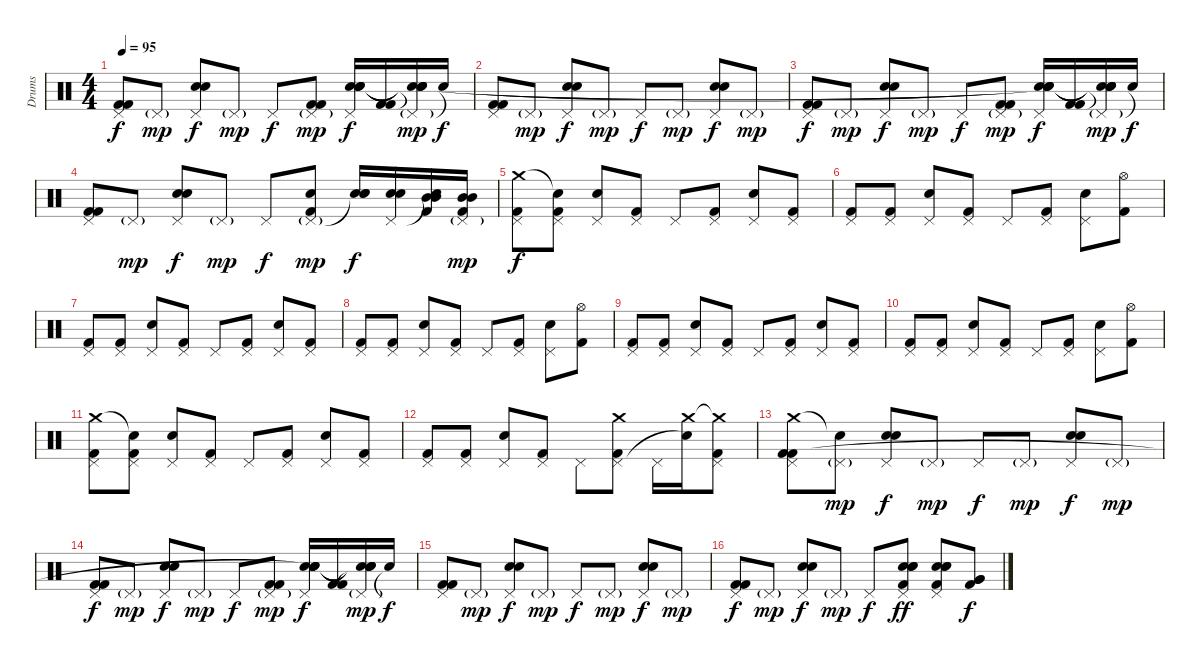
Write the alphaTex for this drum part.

\track ("Drums" "Drums") {instrument percussion}
\staff {score}
\articulation defaults
\ts (4 4)
\tempo 95
\clef neutral
\ks c
("Pedal Hi-Hat (hit)" "Kick (hit) 2" "Kick (hit) 2").8{dy f} "Pedal Hi-Hat (hit)"{g}.8{dy mp} ("Pedal Hi-Hat (hit)" "Electric Snare (hit)" "Electric Snare (hit)").8{dy f} "Pedal Hi-Hat (hit)"{g}.8{dy mp} "Pedal Hi-Hat (hit)".8{dy f} ("Pedal Hi-Hat (hit)"{g} "Kick (hit) 2" "Kick (hit) 2").8{dy mp} ("Pedal Hi-Hat (hit)" "Electric Snare (hit)" "Electric Snare (hit)" "Snare (hit)"{t} "Snare (hit)"{t}).16{dy f} ("Kick (hit) 2" "Kick (hit) 2").16 ("Pedal Hi-Hat (hit)"{g} "Snare (hit)"{t} "Snare (hit)"{t} "Snare (hit)"{t} "Snare (hit)"{t}).16{dy mp} "Snare (hit)"{t}.16{dy f} |
("Pedal Hi-Hat (hit)" "Kick (hit) 2" "Kick (hit) 2").8 "Pedal Hi-Hat (hit)"{g}.8{dy mp} ("Pedal Hi-Hat (hit)" "Electric Snare (hit)" "Electric Snare (hit)").8{dy f} "Pedal Hi-Hat (hit)"{g}.8{dy mp} "Pedal Hi-Hat (hit)".8{dy f} "Pedal Hi-Hat (hit)"{g}.8{dy mp} ("Pedal Hi-Hat (hit)" "Electric Snare (hit)" "Electric Snare (hit)").8{dy f} "Pedal Hi-Hat (hit)"{g}.8{dy mp} |
("Pedal Hi-Hat (hit)" "Kick (hit) 2" "Kick (hit) 2").8{dy f} "Pedal Hi-Hat (hit)"{g}.8{dy mp} ("Pedal Hi-Hat (hit)" "Electric Snare (hit)" "Electric Snare (hit)").8{dy f} "Pedal Hi-Hat (hit)"{g}.8{dy mp} "Pedal Hi-Hat (hit)".8{dy f} ("Pedal Hi-Hat (hit)"{g} "Kick (hit) 2" "Kick (hit) 2").8{dy mp} ("Pedal Hi-Hat (hit)" "Electric Snare (hit)" "Electric Snare (hit)" "Snare (hit)"{t} "Snare (hit)"{t}).16{dy f} ("Kick (hit) 2" "Kick (hit) 2").16 ("Pedal Hi-Hat (hit)"{g} "Snare (hit)"{t} "Snare (hit)"{t} "Snare (hit)"{t} "Snare (hit)"{t}).16{dy mp} "Snare (hit)"{t}.16{dy f} |
("Pedal Hi-Hat (hit)" "Kick (hit) 2" "Kick (hit) 2").8 "Pedal Hi-Hat (hit)"{g}.8{dy mp} ("Pedal Hi-Hat (hit)" "Electric Snare (hit)" "Electric Snare (hit)").8{dy f} "Pedal Hi-Hat (hit)"{g}.8{dy mp} "Pedal Hi-Hat (hit)".8{dy f} ("Pedal Hi-Hat (hit)"{g} "Electric Snare (hit)" "Kick (hit) 2").8{dy mp} ("Snare (hit)"{t} "Electric Snare (hit)" "Electric Snare (hit)").16{dy f} ("Pedal Hi-Hat (hit)" "Electric Snare (hit)" "Electric Snare (hit)").16 ("Snare (hit)"{t} "Mid Tom (hit)" "Mid Tom (hit)" "Kick (hit) 2").16 ("Pedal Hi-Hat (hit)"{g} "Mid Tom (hit)" "Mid Tom (hit)" "Kick (hit) 2").16{dy mp} |
("Crash medium (hit)" "Pedal Hi-Hat (hit)" "Kick (hit) 2").8{dy f} ("Snare (hit)"{t} "Pedal Hi-Hat (hit)" "Kick (hit) 2").8 ("Pedal Hi-Hat (hit)" "Snare (hit) 2").8 ("Pedal Hi-Hat (hit)" "Kick (hit) 2").8 "Pedal Hi-Hat (hit)".8 ("Pedal Hi-Hat (hit)" "Kick (hit) 2").8 ("Pedal Hi-Hat (hit)" "Snare (hit) 2").8 ("Pedal Hi-Hat (hit)" "Kick (hit) 2").8 |
("Pedal Hi-Hat (hit)" "Kick (hit) 2").8 ("Pedal Hi-Hat (hit)" "Kick (hit) 2").8 ("Pedal Hi-Hat (hit)" "Snare (hit) 2").8 ("Pedal Hi-Hat (hit)" "Kick (hit) 2").8 "Pedal Hi-Hat (hit)".8 ("Pedal Hi-Hat (hit)" "Kick (hit) 2").8 ("Pedal Hi-Hat (hit)" "Snare (hit) 2").8 ("Hi-Hat (open)" "Kick (hit) 2").8 |
("Pedal Hi-Hat (hit)" "Kick (hit) 2").8 ("Pedal Hi-Hat (hit)" "Kick (hit) 2").8 ("Pedal Hi-Hat (hit)" "Snare (hit) 2").8 ("Pedal Hi-Hat (hit)" "Kick (hit) 2").8 "Pedal Hi-Hat (hit)".8 ("Pedal Hi-Hat (hit)" "Kick (hit) 2").8 ("Pedal Hi-Hat (hit)" "Snare (hit) 2").8 ("Pedal Hi-Hat (hit)" "Kick (hit) 2").8 |
("Pedal Hi-Hat (hit)" "Kick (hit) 2").8 ("Pedal Hi-Hat (hit)" "Kick (hit) 2").8 ("Pedal Hi-Hat (hit)" "Snare (hit) 2").8 ("Pedal Hi-Hat (hit)" "Kick (hit) 2").8 "Pedal Hi-Hat (hit)".8 ("Pedal Hi-Hat (hit)" "Kick (hit) 2").8 ("Pedal Hi-Hat (hit)" "Snare (hit) 2").8 ("Hi-Hat (open)" "Kick (hit) 2").8 |
("Pedal Hi-Hat (hit)" "Kick (hit) 2").8 ("Pedal Hi-Hat (hit)" "Kick (hit) 2").8 ("Pedal Hi-Hat (hit)" "Snare (hit) 2").8 ("Pedal Hi-Hat (hit)" "Kick (hit) 2").8 "Pedal Hi-Hat (hit)".8 ("Pedal Hi-Hat (hit)" "Kick (hit) 2").8 ("Pedal Hi-Hat (hit)" "Snare (hit) 2").8 ("Pedal Hi-Hat (hit)" "Kick (hit) 2").8 |
("Pedal Hi-Hat (hit)" "Kick (hit) 2").8 ("Pedal Hi-Hat (hit)" "Kick (hit) 2").8 ("Pedal Hi-Hat (hit)" "Snare (hit) 2").8 ("Pedal Hi-Hat (hit)" "Kick (hit) 2").8 "Pedal Hi-Hat (hit)".8 ("Pedal Hi-Hat (hit)" "Kick (hit) 2").8 ("Pedal Hi-Hat (hit)" "Snare (hit) 2").8 ("Hi-Hat (open)" "Kick (hit) 2").8 |
("Crash medium (hit)" "Pedal Hi-Hat (hit)" "Kick (hit) 2").8 ("Snare (hit)"{t} "Pedal Hi-Hat (hit)" "Kick (hit) 2").8 ("Pedal Hi-Hat (hit)" "Snare (hit) 2").8 ("Pedal Hi-Hat (hit)" "Kick (hit) 2").8 "Pedal Hi-Hat (hit)".8 ("Pedal Hi-Hat (hit)" "Kick (hit) 2").8 ("Pedal Hi-Hat (hit)" "Snare (hit) 2").8 ("Pedal Hi-Hat (hit)" "Kick (hit) 2").8 |
("Pedal Hi-Hat (hit)" "Kick (hit) 2").8 ("Pedal Hi-Hat (hit)" "Kick (hit) 2").8 ("Pedal Hi-Hat (hit)" "Snare (hit) 2").8 ("Pedal Hi-Hat (hit)" "Kick (hit) 2").8 "Pedal Hi-Hat (hit)".8 ("Crash medium (hit)" "Pedal Hi-Hat (hit)" "Kick (hit) 2").8 "Pedal Hi-Hat (hit)".16 ("Crash medium (hit)" "Snare (hit)"{t}).16 ("Crash medium (hit)"{t} "Pedal Hi-Hat (hit)" "Kick (hit) 2").8 |
("Crash medium (hit)" "Pedal Hi-Hat (hit)" "Kick (hit) 2" "Kick (hit) 2").8 ("Snare (hit)"{t} "Pedal Hi-Hat (hit)"{g}).8{dy mp} ("Pedal Hi-Hat (hit)" "Electric Snare (hit)" "Electric Snare (hit)").8{dy f} "Pedal Hi-Hat (hit)"{g}.8{dy mp} "Pedal Hi-Hat (hit)".8{dy f} "Pedal Hi-Hat (hit)"{g}.8{dy mp} ("Pedal Hi-Hat (hit)" "Electric Snare (hit)" "Electric Snare (hit)").8{dy f} "Pedal Hi-Hat (hit)"{g}.8{dy mp} |
("Pedal Hi-Hat (hit)" "Kick (hit) 2" "Kick (hit) 2").8{dy f} "Pedal Hi-Hat (hit)"{g}.8{dy mp} ("Pedal Hi-Hat (hit)" "Electric Snare (hit)" "Electric Snare (hit)").8{dy f} "Pedal Hi-Hat (hit)"{g}.8{dy mp} "Pedal Hi-Hat (hit)".8{dy f} ("Pedal Hi-Hat (hit)"{g} "Kick (hit) 2" "Kick (hit) 2").8{dy mp} ("Pedal Hi-Hat (hit)" "Electric Snare (hit)" "Electric Snare (hit)" "Snare (hit)"{t} "Snare (hit)").16{dy f} ("Kick (hit) 2" "Kick (hit) 2").16 ("Pedal Hi-Hat (hit)"{g} "Snare (hit)"{t} "Snare (hit)"{t} "Snare (hit)"{t} "Snare (hit)"{t}).16{dy mp} "Snare (hit)"{t}.16{dy f} |
("Pedal Hi-Hat (hit)" "Kick (hit) 2" "Kick (hit) 2").8 "Pedal Hi-Hat (hit)"{g}.8{dy mp} ("Pedal Hi-Hat (hit)" "Electric Snare (hit)" "Electric Snare (hit)").8{dy f} "Pedal Hi-Hat (hit)"{g}.8{dy mp} "Pedal Hi-Hat (hit)".8{dy f} "Pedal Hi-Hat (hit)"{g}.8{dy mp} ("Pedal Hi-Hat (hit)" "Electric Snare (hit)" "Electric Snare (hit)").8{dy f} "Pedal Hi-Hat (hit)"{g}.8{dy mp} |
("Pedal Hi-Hat (hit)" "Kick (hit) 2" "Kick (hit) 2").8{dy f} "Pedal Hi-Hat (hit)"{g}.8{dy mp} ("Pedal Hi-Hat (hit)" "Electric Snare (hit)" "Electric Snare (hit)").8{dy f} "Pedal Hi-Hat (hit)"{g}.8{dy mp} "Pedal Hi-Hat (hit)".8{dy f} ("Pedal Hi-Hat (hit)" "Electric Snare (hit)" "Electric Snare (hit)" "Electric Snare (hit)" "Kick (hit) 2").8{dy ff} ("Pedal Hi-Hat (hit)" "Electric Snare (hit)" "Electric Snare (hit)" "Electric Snare (hit)" "Kick (hit) 2").8 ("Very Low Tom (hit)" "Very Low Tom (hit)" "Kick (hit) 2").8{dy f}
